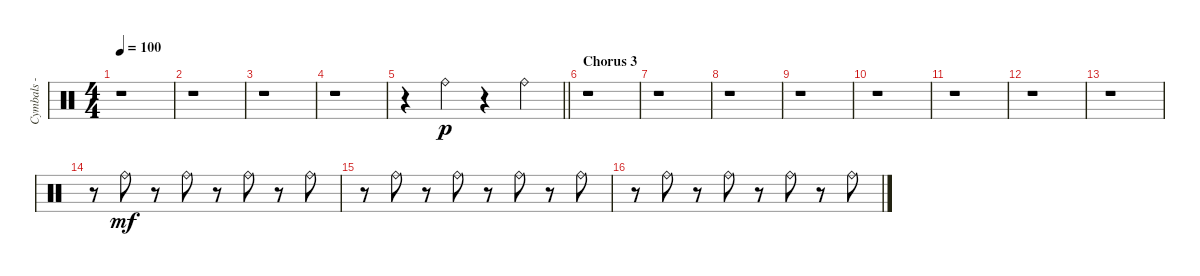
\track ("Cymbals - ride" "Cymbals - ") {instrument percussion}
\staff {score}
\articulation defaults
\ts (4 4)
\tempo 100
\clef neutral
\ks c
r.1{dy mp} |
r.1 |
r.1 |
r.1 |
\barLineRight lightlight
\ks aminor
r.4 "Ride (bell)".4{dy p} r.4 "Ride (bell)".4 |
\section ("" "Chorus 3")
\ks c
r.1 |
r.1 |
r.1 |
r.1 |
r.1 |
r.1 |
r.1 |
r.1 |
r.8 "Ride (bell)".8{dy mf} r.8 "Ride (bell)".8 r.8 "Ride (bell)".8 r.8 "Ride (bell)".8 |
r.8 "Ride (bell)".8 r.8 "Ride (bell)".8 r.8 "Ride (bell)".8 r.8 "Ride (bell)".8 |
r.8 "Ride (bell)".8 r.8 "Ride (bell)".8 r.8 "Ride (bell)".8 r.8 "Ride (bell)".8
